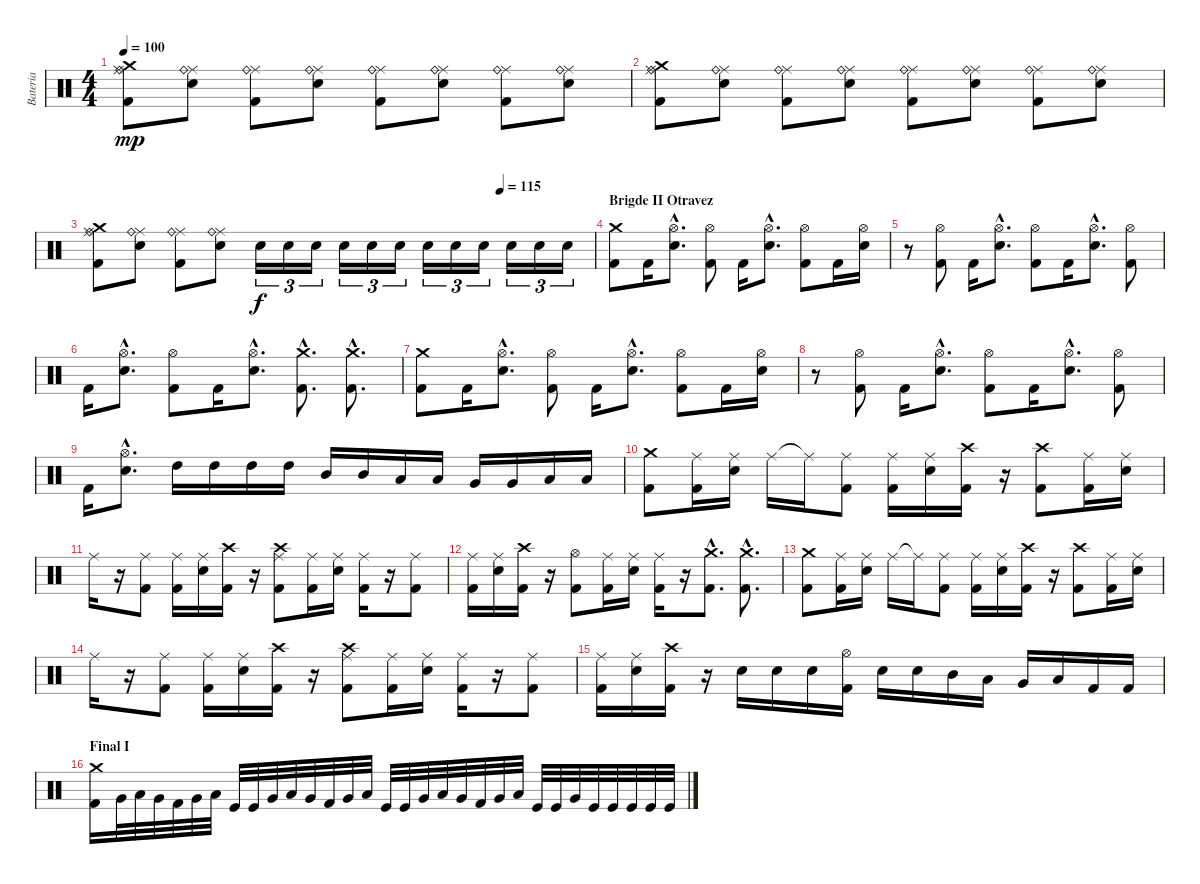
\track ("Bateria" "Bateria") {instrument percussion}
\staff {score}
\articulation defaults
\ts (4 4)
\tempo 100
\clef neutral
\ks c
("Crash medium (hit)" "Ride (middle)" "Kick (hit) 2" "Ride (bell)").8{dy mp} ("Ride (middle)" "Snare (hit) 2" "Ride (bell)").8 ("Ride (middle)" "Kick (hit) 2" "Ride (bell)").8 ("Ride (middle)" "Snare (hit) 2" "Ride (bell)").8 ("Ride (middle)" "Kick (hit) 2" "Ride (bell)").8 ("Ride (middle)" "Snare (hit) 2" "Ride (bell)").8 ("Ride (middle)" "Kick (hit) 2" "Ride (bell)").8 ("Ride (middle)" "Snare (hit) 2" "Ride (bell)").8 |
("Crash medium (hit)" "Ride (middle)" "Kick (hit) 2" "Ride (bell)").8 ("Ride (middle)" "Snare (hit) 2" "Ride (bell)").8 ("Ride (middle)" "Kick (hit) 2" "Ride (bell)").8 ("Ride (middle)" "Snare (hit) 2" "Ride (bell)").8 ("Ride (middle)" "Kick (hit) 2" "Ride (bell)").8 ("Ride (middle)" "Snare (hit) 2" "Ride (bell)").8 ("Ride (middle)" "Kick (hit) 2" "Ride (bell)").8 ("Ride (middle)" "Snare (hit) 2" "Ride (bell)").8 |
\tempo (115 0.8125)
("Crash medium (hit)" "Ride (middle)" "Kick (hit) 2" "Ride (bell)").8 ("Ride (middle)" "Snare (hit) 2" "Ride (bell)").8 ("Ride (middle)" "Kick (hit) 2" "Ride (bell)").8 ("Ride (middle)" "Snare (hit) 2" "Ride (bell)").8 "Snare (hit) 2".16{tu (3 2) dy f} "Snare (hit) 2".16{tu (3 2)} "Snare (hit) 2".16{tu (3 2)} "Snare (hit) 2".16{tu (3 2)} "Snare (hit) 2".16{tu (3 2)} "Snare (hit) 2".16{tu (3 2)} "Snare (hit) 2".16{tu (3 2)} "Snare (hit) 2".16{tu (3 2)} "Snare (hit) 2".16{tu (3 2)} "Snare (hit) 2".16{tu (3 2)} "Snare (hit) 2".16{tu (3 2)} "Snare (hit) 2".16{tu (3 2)} |
\section ("" "Brigde II Otravez")
("Crash medium (hit)" "Kick (hit) 2").8 "Kick (hit) 2".16 ("Hi-Hat (open)"{hac} "Snare (hit) 2"{hac}).8{d} ("Hi-Hat (open)" "Kick (hit) 2").8 "Kick (hit) 2".16 ("Hi-Hat (open)"{hac} "Snare (hit) 2"{hac}).8{d} ("Hi-Hat (open)" "Kick (hit) 2").8 "Kick (hit) 2".16 ("Hi-Hat (open)" "Snare (hit) 2").16 |
r.8 ("Hi-Hat (open)" "Kick (hit) 2").8 "Kick (hit) 2".16 ("Hi-Hat (open)"{hac} "Snare (hit) 2"{hac}).8{d} ("Hi-Hat (open)" "Kick (hit) 2").8 "Kick (hit) 2".16 ("Hi-Hat (open)"{hac} "Snare (hit) 2"{hac}).8{d} ("Hi-Hat (open)" "Kick (hit) 2").8 |
"Kick (hit) 2".16 ("Hi-Hat (open)"{hac} "Snare (hit) 2"{hac}).8{d} ("Hi-Hat (open)" "Kick (hit) 2").8 "Kick (hit) 2".16 ("Hi-Hat (open)"{hac} "Snare (hit) 2"{hac}).8{d} ("Crash medium (hit)"{hac} "Kick (hit) 2"{hac}).8{d} ("Crash medium (hit)"{hac} "Kick (hit) 2"{hac}).8{d} |
("Crash medium (hit)" "Kick (hit) 2").8 "Kick (hit) 2".16 ("Hi-Hat (open)"{hac} "Snare (hit) 2"{hac}).8{d} ("Hi-Hat (open)" "Kick (hit) 2").8 "Kick (hit) 2".16 ("Hi-Hat (open)"{hac} "Snare (hit) 2"{hac}).8{d} ("Hi-Hat (open)" "Kick (hit) 2").8 "Kick (hit) 2".16 ("Hi-Hat (open)" "Snare (hit) 2").16 |
r.8 ("Hi-Hat (open)" "Kick (hit) 2").8 "Kick (hit) 2".16 ("Hi-Hat (open)"{hac} "Snare (hit) 2"{hac}).8{d} ("Hi-Hat (open)" "Kick (hit) 2").8 "Kick (hit) 2".16 ("Hi-Hat (open)"{hac} "Snare (hit) 2"{hac}).8{d} ("Hi-Hat (open)" "Kick (hit) 2").8 |
"Kick (hit) 2".16 ("Hi-Hat (open)"{hac} "Snare (hit) 2"{hac}).8{d} "High Tom (hit)".16 "High Tom (hit)".16 "High Tom (hit)".16 "High Tom (hit)".16 "Mid Tom (hit)".16 "Mid Tom (hit)".16 "Low Tom (hit)".16 "Low Tom (hit)".16 "Very Low Tom (hit)".16 "Very Low Tom (hit)".16 "Low Floor Tom (hit)".16 "Low Floor Tom (hit)".16 |
("Crash medium (hit)" "Kick (hit) 2").8 ("Ride (middle)" "Kick (hit) 2").16 ("Ride (middle)" "Snare (hit) 2").16 "Ride (middle)".16 "Ride (middle)"{t}.16 ("Ride (middle)" "Kick (hit) 2").8 ("Ride (middle)" "Kick (hit) 2").16 ("Ride (middle)" "Snare (hit) 2").16 ("Crash high (hit)" "Kick (hit) 2").16 r.16 ("Crash high (hit)" "Kick (hit) 2").8 ("Ride (middle)" "Kick (hit) 2").16 ("Ride (middle)" "Snare (hit) 2").16 |
"Ride (middle)".16 r.16 ("Ride (middle)" "Kick (hit) 2").8 ("Ride (middle)" "Kick (hit) 2").16 ("Ride (middle)" "Snare (hit) 2").16 ("Crash high (hit)" "Kick (hit) 2").16 r.16 ("Crash high (hit)" "Kick (hit) 2" "Ride (middle)").8 ("Kick (hit) 2" "Ride (middle)").16 ("Ride (middle)" "Snare (hit) 2").16 ("Kick (hit) 2" "Ride (middle)").16 r.16 ("Ride (middle)" "Kick (hit) 2").8 |
("Ride (middle)" "Kick (hit) 2").16 ("Ride (middle)" "Snare (hit) 2").16 ("Crash high (hit)" "Kick (hit) 2").16 r.16 ("Hi-Hat (open)" "Kick (hit) 2").8 ("Ride (middle)" "Kick (hit) 2").16 ("Ride (middle)" "Snare (hit) 2").16 ("Ride (middle)" "Kick (hit) 2").16 r.16 ("Crash medium (hit)"{hac} "Kick (hit) 2"{hac}).8{d} ("Crash medium (hit)"{hac} "Kick (hit) 2"{hac}).8{d} |
("Crash medium (hit)" "Kick (hit) 2").8 ("Ride (middle)" "Kick (hit) 2").16 ("Ride (middle)" "Snare (hit) 2").16 "Ride (middle)".16 "Ride (middle)"{t}.16 ("Ride (middle)" "Kick (hit) 2").8 ("Ride (middle)" "Kick (hit) 2").16 ("Ride (middle)" "Snare (hit) 2").16 ("Crash high (hit)" "Kick (hit) 2").16 r.16 ("Crash high (hit)" "Kick (hit) 2").8 ("Ride (middle)" "Kick (hit) 2").16 ("Ride (middle)" "Snare (hit) 2").16 |
"Ride (middle)".16 r.16 ("Ride (middle)" "Kick (hit) 2").8 ("Ride (middle)" "Kick (hit) 2").16 ("Ride (middle)" "Snare (hit) 2").16 ("Crash high (hit)" "Kick (hit) 2").16 r.16 ("Crash high (hit)" "Kick (hit) 2" "Ride (middle)").8 ("Kick (hit) 2" "Ride (middle)").16 ("Ride (middle)" "Snare (hit) 2").16 ("Kick (hit) 2" "Ride (middle)").16 r.16 ("Ride (middle)" "Kick (hit) 2").8 |
("Ride (middle)" "Kick (hit) 2").16 ("Ride (middle)" "Snare (hit) 2").16 ("Crash high (hit)" "Kick (hit) 2").16 r.16 "Snare (hit) 2".16 "Snare (hit) 2".16 "Snare (hit) 2".16 ("Hi-Hat (open)" "Kick (hit) 2").16 "Snare (hit) 2".16 "Snare (hit) 2".16 "Mid Tom (hit)".16 "Low Tom (hit)".16 "Very Low Tom (hit)".16 "Low Floor Tom (hit)".16 "Kick (hit) 2".16 "Kick (hit) 2".16 |
\section ("" "Final I")
("Kick (hit) 2" "Crash medium (hit)").16 "Very Low Tom (hit)".32 "Low Floor Tom (hit)".32 "Very Low Tom (hit)".32 "Kick (hit) 2".32 "Very Low Tom (hit)".32 "Low Tom (hit)".32 "Kick (hit)".32 "Kick (hit)".32 "Very Low Tom (hit)".32 "Low Floor Tom (hit)".32 "Very Low Tom (hit)".32 "Kick (hit) 2".32 "Very Low Tom (hit)".32 "Low Tom (hit)".32 "Kick (hit)".32 "Kick (hit)".32 "Very Low Tom (hit)".32 "Low Floor Tom (hit)".32 "Very Low Tom (hit)".32 "Kick (hit) 2".32 "Very Low Tom (hit)".32 "Low Tom (hit)".32 "Kick (hit)".32 "Kick (hit)".32 "Very Low Tom (hit)".32 "Kick (hit)".32 "Kick (hit)".32 "Kick (hit)".32 "Kick (hit)".32 "Kick (hit)".32
